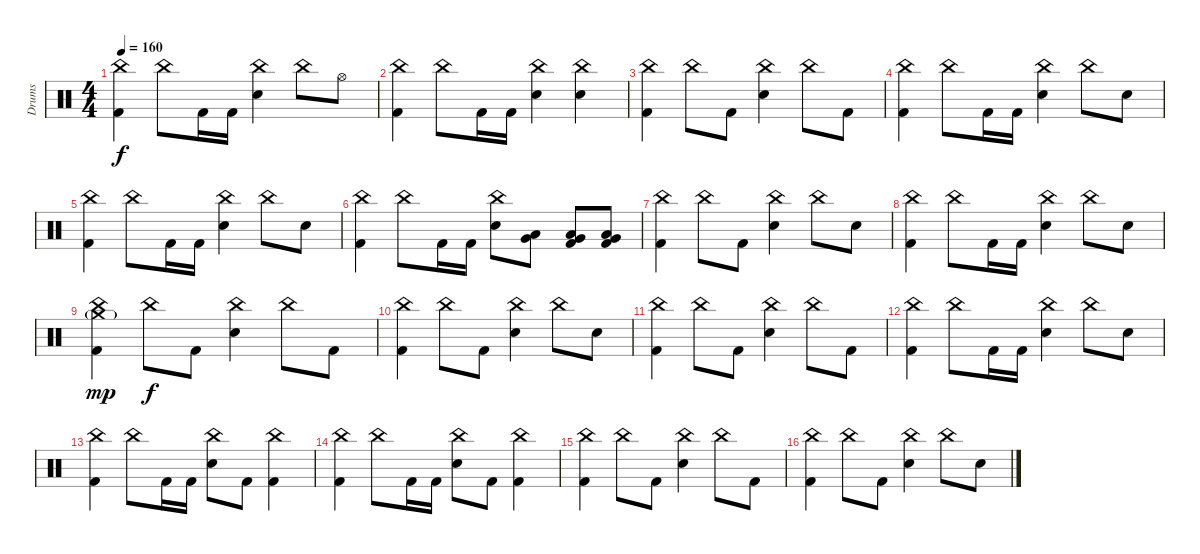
\track ("Drums" "Drums") {instrument percussion}
\staff {score}
\articulation defaults
\ts (4 4)
\tempo 160
\clef neutral
\ks c
("China (hit)" "Kick (hit) 2").4{dy f} "China (hit)".8 "Kick (hit) 2".16 "Kick (hit) 2".16 ("China (hit)" "Electric Snare (hit)").4 "China (hit)".8 "Hi-Hat (open)".8 |
("China (hit)" "Kick (hit) 2").4 "China (hit)".8 "Kick (hit) 2".16 "Kick (hit) 2".16 ("China (hit)" "Electric Snare (hit)").4 ("China (hit)" "Electric Snare (hit)").4 |
("China (hit)" "Kick (hit) 2").4 "China (hit)".8 "Kick (hit) 2".8 ("China (hit)" "Electric Snare (hit)").4 "China (hit)".8 "Kick (hit) 2".8 |
("China (hit)" "Kick (hit) 2").4 "China (hit)".8 "Kick (hit) 2".16 "Kick (hit) 2".16 ("China (hit)" "Electric Snare (hit)").4 "China (hit)".8 "Electric Snare (hit)".8 |
("China (hit)" "Kick (hit) 2").4 "China (hit)".8 "Kick (hit) 2".16 "Kick (hit) 2".16 ("China (hit)" "Electric Snare (hit)").4 "China (hit)".8 "Electric Snare (hit)".8 |
("China (hit)" "Kick (hit) 2").4 "China (hit)".8 "Kick (hit) 2".16 "Kick (hit) 2".16 ("China (hit)" "Electric Snare (hit)").8 ("Low Tom (hit)" "Very Low Tom (hit)").8 ("Very Low Tom (hit)" "Low Floor Tom (hit)" "Kick (hit) 2").8 ("Very Low Tom (hit)" "Low Floor Tom (hit)" "Kick (hit) 2").8 |
("China (hit)" "Kick (hit) 2").4 "China (hit)".8 "Kick (hit) 2".8 ("China (hit)" "Electric Snare (hit)").4 "China (hit)".8 "Electric Snare (hit)".8 |
("China (hit)" "Kick (hit) 2").4 "China (hit)".8 "Kick (hit) 2".16 "Kick (hit) 2".16 ("China (hit)" "Electric Snare (hit)").4 "China (hit)".8 "Electric Snare (hit)".8 |
("China (hit)" "Crash medium (hit)"{g} "Kick (hit) 2").4{dy mp} "China (hit)".8{dy f} "Kick (hit) 2".8 ("China (hit)" "Electric Snare (hit)").4 "China (hit)".8 "Kick (hit) 2".8 |
("China (hit)" "Kick (hit) 2").4 "China (hit)".8 "Kick (hit) 2".8 ("China (hit)" "Electric Snare (hit)").4 "China (hit)".8 "Electric Snare (hit)".8 |
("China (hit)" "Kick (hit) 2").4{volume 12} "China (hit)".8 "Kick (hit) 2".8 ("China (hit)" "Electric Snare (hit)").4 "China (hit)".8 "Kick (hit) 2".8 |
("China (hit)" "Kick (hit) 2").4 "China (hit)".8 "Kick (hit) 2".16 "Kick (hit) 2".16 ("China (hit)" "Electric Snare (hit)").4 "China (hit)".8 "Electric Snare (hit)".8 |
("China (hit)" "Kick (hit) 2").4 "China (hit)".8 "Kick (hit) 2".16 "Kick (hit) 2".16 ("China (hit)" "Electric Snare (hit)").8 "Kick (hit) 2".8 ("China (hit)" "Kick (hit) 2").4 |
("China (hit)" "Kick (hit) 2").4{volume 11} "China (hit)".8 "Kick (hit) 2".16 "Kick (hit) 2".16 ("China (hit)" "Electric Snare (hit)").8 "Kick (hit) 2".8 ("China (hit)" "Kick (hit) 2").4 |
("China (hit)" "Kick (hit) 2").4 "China (hit)".8 "Kick (hit) 2".8 ("China (hit)" "Electric Snare (hit)").4 "China (hit)".8 "Kick (hit) 2".8 |
("China (hit)" "Kick (hit) 2").4 "China (hit)".8 "Kick (hit) 2".8 ("China (hit)" "Electric Snare (hit)").4 "China (hit)".8 "Electric Snare (hit)".8
